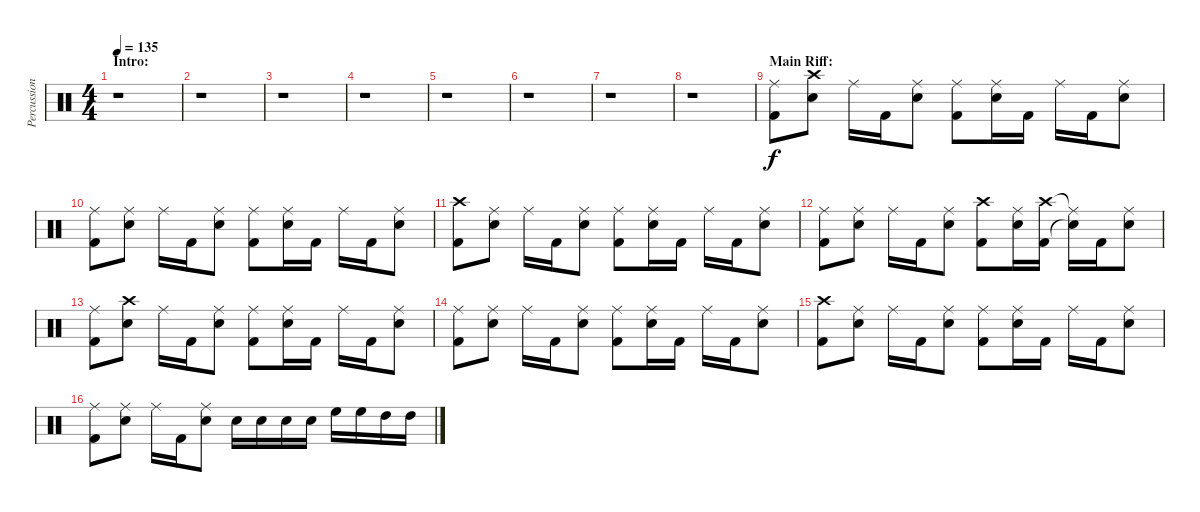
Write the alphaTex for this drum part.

\track ("Percussion" "Percussion") {instrument percussion}
\staff {score}
\articulation defaults
\ts (4 4)
\section ("" "Intro:")
\tempo 135
\clef neutral
\ks c
r.1{dy f} |
r.1 |
r.1 |
r.1 |
r.1 |
r.1 |
r.1 |
r.1 |
\section ("" "Main Riff:")
("Ride (middle)" "Kick (hit) 2").8 ("Crash high (hit)" "Electric Snare (hit)").8 "Ride (middle)".16 "Kick (hit) 2".16 ("Ride (middle)" "Electric Snare (hit)").8 ("Ride (middle)" "Kick (hit) 2").8 ("Ride (middle)" "Electric Snare (hit)").16 "Kick (hit) 2".16 "Ride (middle)".16 "Kick (hit) 2".16 ("Ride (middle)" "Electric Snare (hit)").8 |
("Ride (middle)" "Kick (hit) 2").8 ("Ride (middle)" "Electric Snare (hit)").8 "Ride (middle)".16 "Kick (hit) 2".16 ("Ride (middle)" "Electric Snare (hit)").8 ("Ride (middle)" "Kick (hit) 2").8 ("Ride (middle)" "Electric Snare (hit)").16 "Kick (hit) 2".16 "Ride (middle)".16 "Kick (hit) 2".16 ("Ride (middle)" "Electric Snare (hit)").8 |
("Crash high (hit)" "Kick (hit) 2").8 ("Ride (middle)" "Electric Snare (hit)").8 "Ride (middle)".16 "Kick (hit) 2".16 ("Ride (middle)" "Electric Snare (hit)").8 ("Ride (middle)" "Kick (hit) 2").8 ("Ride (middle)" "Electric Snare (hit)").16 "Kick (hit) 2".16 "Ride (middle)".16 "Kick (hit) 2".16 ("Ride (middle)" "Electric Snare (hit)").8 |
("Ride (middle)" "Kick (hit) 2").8 ("Ride (middle)" "Electric Snare (hit)").8 "Ride (middle)".16 "Kick (hit) 2".16 ("Ride (middle)" "Electric Snare (hit)").8 ("Crash high (hit)" "Kick (hit) 2").8 ("Ride (middle)" "Electric Snare (hit)").16 ("Crash high (hit)" "Kick (hit) 2").16 ("Ride (middle)"{t} "Snare (hit)"{t}).16 "Kick (hit) 2".16 ("Ride (middle)" "Electric Snare (hit)").8 |
("Ride (middle)" "Kick (hit) 2").8 ("Crash high (hit)" "Electric Snare (hit)").8 "Ride (middle)".16 "Kick (hit) 2".16 ("Ride (middle)" "Electric Snare (hit)").8 ("Ride (middle)" "Kick (hit) 2").8 ("Ride (middle)" "Electric Snare (hit)").16 "Kick (hit) 2".16 "Ride (middle)".16 "Kick (hit) 2".16 ("Ride (middle)" "Electric Snare (hit)").8 |
("Ride (middle)" "Kick (hit) 2").8 ("Ride (middle)" "Electric Snare (hit)").8 "Ride (middle)".16 "Kick (hit) 2".16 ("Ride (middle)" "Electric Snare (hit)").8 ("Ride (middle)" "Kick (hit) 2").8 ("Ride (middle)" "Electric Snare (hit)").16 "Kick (hit) 2".16 "Ride (middle)".16 "Kick (hit) 2".16 ("Ride (middle)" "Electric Snare (hit)").8 |
("Crash high (hit)" "Kick (hit) 2").8 ("Ride (middle)" "Electric Snare (hit)").8 "Ride (middle)".16 "Kick (hit) 2".16 ("Ride (middle)" "Electric Snare (hit)").8 ("Ride (middle)" "Kick (hit) 2").8 ("Ride (middle)" "Electric Snare (hit)").16 "Kick (hit) 2".16 "Ride (middle)".16 "Kick (hit) 2".16 ("Ride (middle)" "Electric Snare (hit)").8 |
("Ride (middle)" "Kick (hit) 2").8 ("Ride (middle)" "Electric Snare (hit)").8 "Ride (middle)".16 "Kick (hit) 2".16 ("Ride (middle)" "Electric Snare (hit)").8 "Electric Snare (hit)".16 "Electric Snare (hit)".16 "Electric Snare (hit)".16 "Electric Snare (hit)".16 "High Floor Tom (hit)".16 "High Floor Tom (hit)".16 "High Tom (hit)".16 "High Tom (hit)".16
